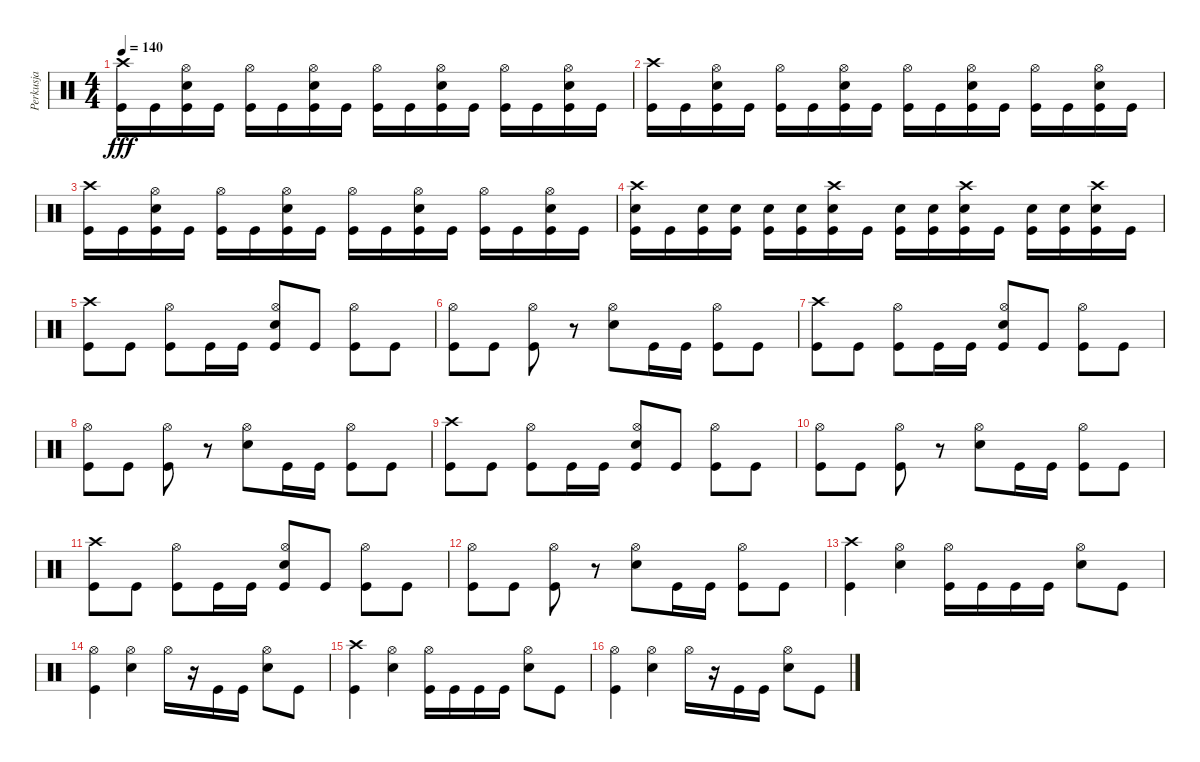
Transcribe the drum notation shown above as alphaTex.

\track ("Perkusja" "Perkusja") {instrument percussion}
\staff {score}
\articulation defaults
\ts (4 4)
\tempo 140
\clef neutral
\ks c
("Crash high (hit)" "Kick (hit)").16{dy fff} "Kick (hit)".16 ("Hi-Hat (open)" "Electric Snare (hit)" "Kick (hit)").16 "Kick (hit)".16 ("Hi-Hat (open)" "Kick (hit)").16 "Kick (hit)".16 ("Hi-Hat (open)" "Electric Snare (hit)" "Kick (hit)").16 "Kick (hit)".16 ("Hi-Hat (open)" "Kick (hit)").16 "Kick (hit)".16 ("Hi-Hat (open)" "Electric Snare (hit)" "Kick (hit)").16 "Kick (hit)".16 ("Hi-Hat (open)" "Kick (hit)").16 "Kick (hit)".16 ("Hi-Hat (open)" "Electric Snare (hit)" "Kick (hit)").16 "Kick (hit)".16 |
("Crash high (hit)" "Kick (hit)").16 "Kick (hit)".16 ("Hi-Hat (open)" "Electric Snare (hit)" "Kick (hit)").16 "Kick (hit)".16 ("Hi-Hat (open)" "Kick (hit)").16 "Kick (hit)".16 ("Hi-Hat (open)" "Electric Snare (hit)" "Kick (hit)").16 "Kick (hit)".16 ("Hi-Hat (open)" "Kick (hit)").16 "Kick (hit)".16 ("Hi-Hat (open)" "Electric Snare (hit)" "Kick (hit)").16 "Kick (hit)".16 ("Hi-Hat (open)" "Kick (hit)").16 "Kick (hit)".16 ("Hi-Hat (open)" "Electric Snare (hit)" "Kick (hit)").16 "Kick (hit)".16 |
("Crash high (hit)" "Kick (hit)").16 "Kick (hit)".16 ("Hi-Hat (open)" "Electric Snare (hit)" "Kick (hit)").16 "Kick (hit)".16 ("Hi-Hat (open)" "Kick (hit)").16 "Kick (hit)".16 ("Hi-Hat (open)" "Electric Snare (hit)" "Kick (hit)").16 "Kick (hit)".16 ("Hi-Hat (open)" "Kick (hit)").16 "Kick (hit)".16 ("Hi-Hat (open)" "Electric Snare (hit)" "Kick (hit)").16 "Kick (hit)".16 ("Hi-Hat (open)" "Kick (hit)").16 "Kick (hit)".16 ("Hi-Hat (open)" "Electric Snare (hit)" "Kick (hit)").16 "Kick (hit)".16 |
("Crash high (hit)" "Electric Snare (hit)" "Kick (hit)").16 "Kick (hit)".16 ("Electric Snare (hit)" "Kick (hit)").16 ("Electric Snare (hit)" "Kick (hit)").16 ("Electric Snare (hit)" "Kick (hit)").16 ("Electric Snare (hit)" "Kick (hit)").16 ("Crash high (hit)" "Electric Snare (hit)" "Kick (hit)").16 "Kick (hit)".16 ("Electric Snare (hit)" "Kick (hit)").16 ("Electric Snare (hit)" "Kick (hit)").16 ("Crash high (hit)" "Electric Snare (hit)" "Kick (hit)").16 "Kick (hit)".16 ("Electric Snare (hit)" "Kick (hit)").16 ("Electric Snare (hit)" "Kick (hit)").16 ("Crash high (hit)" "Electric Snare (hit)" "Kick (hit)").16 "Kick (hit)".16 |
("Crash high (hit)" "Kick (hit)").8 "Kick (hit)".8 ("Hi-Hat (open)" "Kick (hit)").8 "Kick (hit)".16 "Kick (hit)".16 ("Hi-Hat (open)" "Electric Snare (hit)" "Kick (hit)").8 "Kick (hit)".8 ("Hi-Hat (open)" "Kick (hit)").8 "Kick (hit)".8 |
("Hi-Hat (open)" "Kick (hit)").8 "Kick (hit)".8 ("Hi-Hat (open)" "Kick (hit)").8 r.8 ("Hi-Hat (open)" "Electric Snare (hit)").8 "Kick (hit)".16 "Kick (hit)".16 ("Hi-Hat (open)" "Kick (hit)").8 "Kick (hit)".8 |
("Crash high (hit)" "Kick (hit)").8 "Kick (hit)".8 ("Hi-Hat (open)" "Kick (hit)").8 "Kick (hit)".16 "Kick (hit)".16 ("Hi-Hat (open)" "Electric Snare (hit)" "Kick (hit)").8 "Kick (hit)".8 ("Hi-Hat (open)" "Kick (hit)").8 "Kick (hit)".8 |
("Hi-Hat (open)" "Kick (hit)").8 "Kick (hit)".8 ("Hi-Hat (open)" "Kick (hit)").8 r.8 ("Hi-Hat (open)" "Electric Snare (hit)").8 "Kick (hit)".16 "Kick (hit)".16 ("Hi-Hat (open)" "Kick (hit)").8 "Kick (hit)".8 |
("Crash high (hit)" "Kick (hit)").8 "Kick (hit)".8 ("Hi-Hat (open)" "Kick (hit)").8 "Kick (hit)".16 "Kick (hit)".16 ("Hi-Hat (open)" "Electric Snare (hit)" "Kick (hit)").8 "Kick (hit)".8 ("Hi-Hat (open)" "Kick (hit)").8 "Kick (hit)".8 |
("Hi-Hat (open)" "Kick (hit)").8 "Kick (hit)".8 ("Hi-Hat (open)" "Kick (hit)").8 r.8 ("Hi-Hat (open)" "Electric Snare (hit)").8 "Kick (hit)".16 "Kick (hit)".16 ("Hi-Hat (open)" "Kick (hit)").8 "Kick (hit)".8 |
("Crash high (hit)" "Kick (hit)").8 "Kick (hit)".8 ("Hi-Hat (open)" "Kick (hit)").8 "Kick (hit)".16 "Kick (hit)".16 ("Hi-Hat (open)" "Electric Snare (hit)" "Kick (hit)").8 "Kick (hit)".8 ("Hi-Hat (open)" "Kick (hit)").8 "Kick (hit)".8 |
("Hi-Hat (open)" "Kick (hit)").8 "Kick (hit)".8 ("Hi-Hat (open)" "Kick (hit)").8 r.8 ("Hi-Hat (open)" "Electric Snare (hit)").8 "Kick (hit)".16 "Kick (hit)".16 ("Hi-Hat (open)" "Kick (hit)").8 "Kick (hit)".8 |
("Crash high (hit)" "Kick (hit)").4 ("Hi-Hat (open)" "Electric Snare (hit)").4 ("Hi-Hat (open)" "Kick (hit)").16 "Kick (hit)".16 "Kick (hit)".16 "Kick (hit)".16 ("Hi-Hat (open)" "Electric Snare (hit)").8 "Kick (hit)".8 |
("Hi-Hat (open)" "Kick (hit)").4 ("Hi-Hat (open)" "Electric Snare (hit)").4 "Hi-Hat (open)".16 r.16 "Kick (hit)".16 "Kick (hit)".16 ("Hi-Hat (open)" "Electric Snare (hit)").8 "Kick (hit)".8 |
("Crash high (hit)" "Kick (hit)").4 ("Hi-Hat (open)" "Electric Snare (hit)").4 ("Hi-Hat (open)" "Kick (hit)").16 "Kick (hit)".16 "Kick (hit)".16 "Kick (hit)".16 ("Hi-Hat (open)" "Electric Snare (hit)").8 "Kick (hit)".8 |
("Hi-Hat (open)" "Kick (hit)").4 ("Hi-Hat (open)" "Electric Snare (hit)").4 "Hi-Hat (open)".16 r.16 "Kick (hit)".16 "Kick (hit)".16 ("Hi-Hat (open)" "Electric Snare (hit)").8 "Kick (hit)".8
